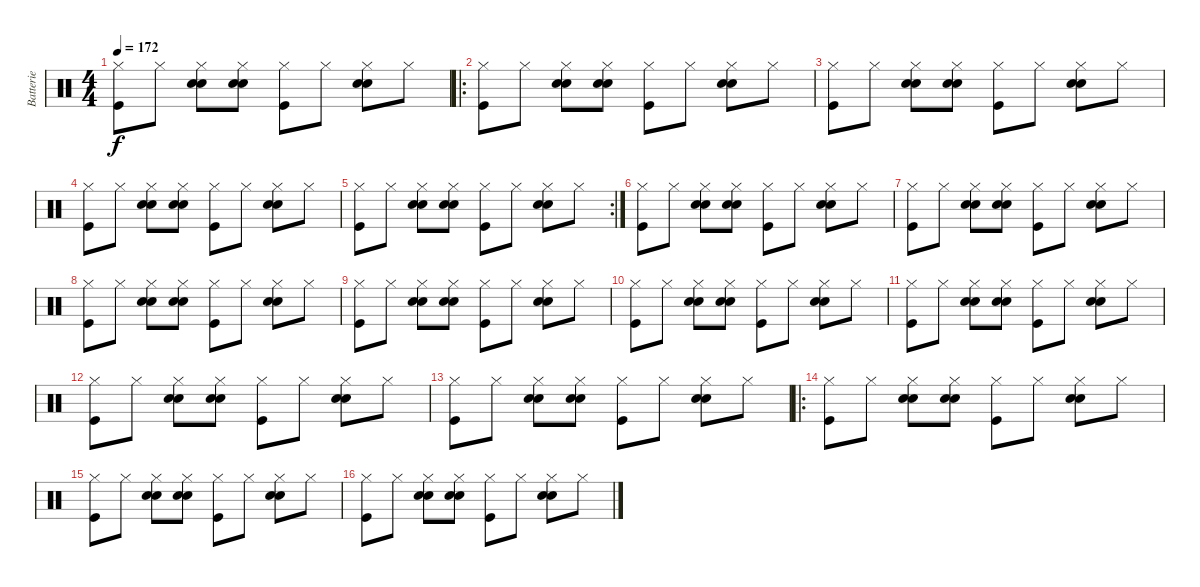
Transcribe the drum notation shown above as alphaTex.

\track ("Batterie" "Batterie") {instrument percussion}
\staff {score}
\articulation defaults
\ts (4 4)
\tempo 172
\clef neutral
\ks c
("Hi-Hat (closed)" "Kick (hit)").8{dy f} "Hi-Hat (closed)".8 ("Electric Snare (hit)" "Hi-Hat (closed)" "Snare (hit) 2").8 ("Electric Snare (hit)" "Hi-Hat (closed)" "Snare (hit) 2").8 ("Hi-Hat (closed)" "Kick (hit)").8 "Hi-Hat (closed)".8 ("Electric Snare (hit)" "Hi-Hat (closed)" "Snare (hit) 2").8 "Hi-Hat (closed)".8 |
\ro
("Hi-Hat (closed)" "Kick (hit)").8 "Hi-Hat (closed)".8 ("Electric Snare (hit)" "Hi-Hat (closed)" "Snare (hit) 2").8 ("Electric Snare (hit)" "Hi-Hat (closed)" "Snare (hit) 2").8 ("Hi-Hat (closed)" "Kick (hit)").8 "Hi-Hat (closed)".8 ("Electric Snare (hit)" "Hi-Hat (closed)" "Snare (hit) 2").8 "Hi-Hat (closed)".8 |
("Hi-Hat (closed)" "Kick (hit)").8 "Hi-Hat (closed)".8 ("Electric Snare (hit)" "Hi-Hat (closed)" "Snare (hit) 2").8 ("Electric Snare (hit)" "Hi-Hat (closed)" "Snare (hit) 2").8 ("Hi-Hat (closed)" "Kick (hit)").8 "Hi-Hat (closed)".8 ("Electric Snare (hit)" "Hi-Hat (closed)" "Snare (hit) 2").8 "Hi-Hat (closed)".8 |
("Hi-Hat (closed)" "Kick (hit)").8 "Hi-Hat (closed)".8 ("Electric Snare (hit)" "Hi-Hat (closed)" "Snare (hit) 2").8 ("Electric Snare (hit)" "Hi-Hat (closed)" "Snare (hit) 2").8 ("Hi-Hat (closed)" "Kick (hit)").8 "Hi-Hat (closed)".8 ("Electric Snare (hit)" "Hi-Hat (closed)" "Snare (hit) 2").8 "Hi-Hat (closed)".8 |
\rc 2
("Hi-Hat (closed)" "Kick (hit)").8 "Hi-Hat (closed)".8 ("Electric Snare (hit)" "Hi-Hat (closed)" "Snare (hit) 2").8 ("Electric Snare (hit)" "Hi-Hat (closed)" "Snare (hit) 2").8 ("Hi-Hat (closed)" "Kick (hit)").8 "Hi-Hat (closed)".8 ("Electric Snare (hit)" "Hi-Hat (closed)" "Snare (hit) 2").8 "Hi-Hat (closed)".8 |
("Hi-Hat (closed)" "Kick (hit)").8 "Hi-Hat (closed)".8 ("Electric Snare (hit)" "Hi-Hat (closed)" "Snare (hit) 2").8 ("Electric Snare (hit)" "Hi-Hat (closed)" "Snare (hit) 2").8 ("Hi-Hat (closed)" "Kick (hit)").8 "Hi-Hat (closed)".8 ("Electric Snare (hit)" "Hi-Hat (closed)" "Snare (hit) 2").8 "Hi-Hat (closed)".8 |
("Hi-Hat (closed)" "Kick (hit)").8 "Hi-Hat (closed)".8 ("Electric Snare (hit)" "Hi-Hat (closed)" "Snare (hit) 2").8 ("Electric Snare (hit)" "Hi-Hat (closed)" "Snare (hit) 2").8 ("Hi-Hat (closed)" "Kick (hit)").8 "Hi-Hat (closed)".8 ("Electric Snare (hit)" "Hi-Hat (closed)" "Snare (hit) 2").8 "Hi-Hat (closed)".8 |
("Hi-Hat (closed)" "Kick (hit)").8 "Hi-Hat (closed)".8 ("Electric Snare (hit)" "Hi-Hat (closed)" "Snare (hit) 2").8 ("Electric Snare (hit)" "Hi-Hat (closed)" "Snare (hit) 2").8 ("Hi-Hat (closed)" "Kick (hit)").8 "Hi-Hat (closed)".8 ("Electric Snare (hit)" "Hi-Hat (closed)" "Snare (hit) 2").8 "Hi-Hat (closed)".8 |
("Hi-Hat (closed)" "Kick (hit)").8 "Hi-Hat (closed)".8 ("Electric Snare (hit)" "Hi-Hat (closed)" "Snare (hit) 2").8 ("Electric Snare (hit)" "Hi-Hat (closed)" "Snare (hit) 2").8 ("Hi-Hat (closed)" "Kick (hit)").8 "Hi-Hat (closed)".8 ("Electric Snare (hit)" "Hi-Hat (closed)" "Snare (hit) 2").8 "Hi-Hat (closed)".8 |
("Hi-Hat (closed)" "Kick (hit)").8 "Hi-Hat (closed)".8 ("Electric Snare (hit)" "Hi-Hat (closed)" "Snare (hit) 2").8 ("Electric Snare (hit)" "Hi-Hat (closed)" "Snare (hit) 2").8 ("Hi-Hat (closed)" "Kick (hit)").8 "Hi-Hat (closed)".8 ("Electric Snare (hit)" "Hi-Hat (closed)" "Snare (hit) 2").8 "Hi-Hat (closed)".8 |
("Hi-Hat (closed)" "Kick (hit)").8 "Hi-Hat (closed)".8 ("Electric Snare (hit)" "Hi-Hat (closed)" "Snare (hit) 2").8 ("Electric Snare (hit)" "Hi-Hat (closed)" "Snare (hit) 2").8 ("Hi-Hat (closed)" "Kick (hit)").8 "Hi-Hat (closed)".8 ("Electric Snare (hit)" "Hi-Hat (closed)" "Snare (hit) 2").8 "Hi-Hat (closed)".8 |
("Hi-Hat (closed)" "Kick (hit)").8 "Hi-Hat (closed)".8 ("Electric Snare (hit)" "Hi-Hat (closed)" "Snare (hit) 2").8 ("Electric Snare (hit)" "Hi-Hat (closed)" "Snare (hit) 2").8 ("Hi-Hat (closed)" "Kick (hit)").8 "Hi-Hat (closed)".8 ("Electric Snare (hit)" "Hi-Hat (closed)" "Snare (hit) 2").8 "Hi-Hat (closed)".8 |
("Hi-Hat (closed)" "Kick (hit)").8 "Hi-Hat (closed)".8 ("Electric Snare (hit)" "Hi-Hat (closed)" "Snare (hit) 2").8 ("Electric Snare (hit)" "Hi-Hat (closed)" "Snare (hit) 2").8 ("Hi-Hat (closed)" "Kick (hit)").8 "Hi-Hat (closed)".8 ("Electric Snare (hit)" "Hi-Hat (closed)" "Snare (hit) 2").8 "Hi-Hat (closed)".8 |
\ro
("Hi-Hat (closed)" "Kick (hit)").8 "Hi-Hat (closed)".8 ("Electric Snare (hit)" "Hi-Hat (closed)" "Snare (hit) 2").8 ("Electric Snare (hit)" "Hi-Hat (closed)" "Snare (hit) 2").8 ("Hi-Hat (closed)" "Kick (hit)").8 "Hi-Hat (closed)".8 ("Electric Snare (hit)" "Hi-Hat (closed)" "Snare (hit) 2").8 "Hi-Hat (closed)".8 |
("Hi-Hat (closed)" "Kick (hit)").8 "Hi-Hat (closed)".8 ("Electric Snare (hit)" "Hi-Hat (closed)" "Snare (hit) 2").8 ("Electric Snare (hit)" "Hi-Hat (closed)" "Snare (hit) 2").8 ("Hi-Hat (closed)" "Kick (hit)").8 "Hi-Hat (closed)".8 ("Electric Snare (hit)" "Hi-Hat (closed)" "Snare (hit) 2").8 "Hi-Hat (closed)".8 |
("Hi-Hat (closed)" "Kick (hit)").8 "Hi-Hat (closed)".8 ("Electric Snare (hit)" "Hi-Hat (closed)" "Snare (hit) 2").8 ("Electric Snare (hit)" "Hi-Hat (closed)" "Snare (hit) 2").8 ("Hi-Hat (closed)" "Kick (hit)").8 "Hi-Hat (closed)".8 ("Electric Snare (hit)" "Hi-Hat (closed)" "Snare (hit) 2").8 "Hi-Hat (closed)".8
